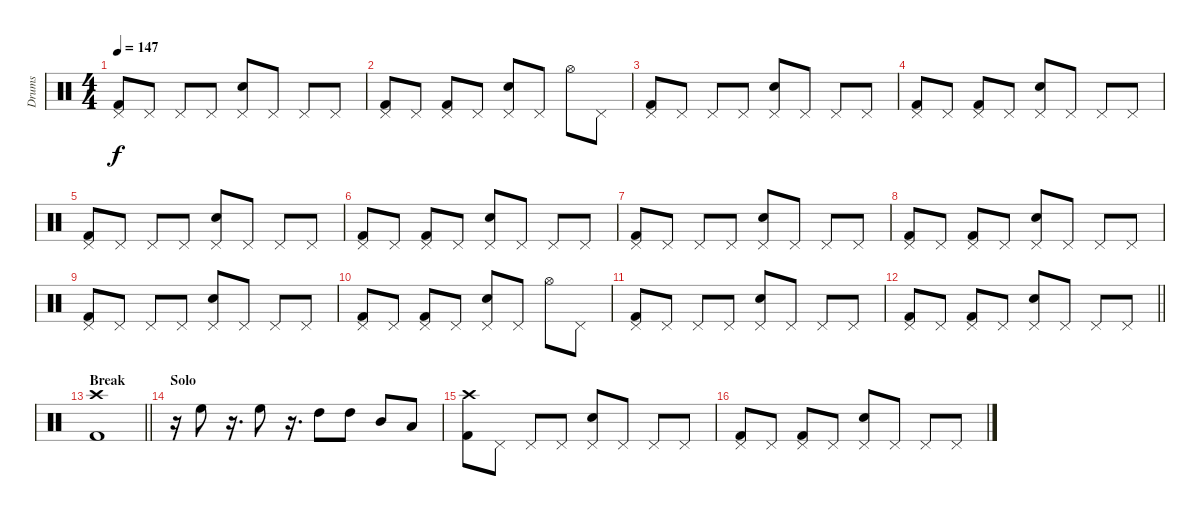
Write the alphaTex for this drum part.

\track ("Drums" "Drums") {instrument percussion}
\staff {score}
\articulation defaults
\ts (4 4)
\tempo 147
\clef neutral
\ks c
("Kick (hit) 2" "Pedal Hi-Hat (hit)").8{dy f} "Pedal Hi-Hat (hit)".8 "Pedal Hi-Hat (hit)".8 "Pedal Hi-Hat (hit)".8 ("Electric Snare (hit)" "Pedal Hi-Hat (hit)").8 "Pedal Hi-Hat (hit)".8 "Pedal Hi-Hat (hit)".8 "Pedal Hi-Hat (hit)".8 |
("Kick (hit) 2" "Pedal Hi-Hat (hit)").8 "Pedal Hi-Hat (hit)".8 ("Kick (hit) 2" "Pedal Hi-Hat (hit)").8 "Pedal Hi-Hat (hit)".8 ("Electric Snare (hit)" "Pedal Hi-Hat (hit)").8 "Pedal Hi-Hat (hit)".8 "Hi-Hat (open)".8 "Pedal Hi-Hat (hit)".8 |
("Kick (hit) 2" "Pedal Hi-Hat (hit)").8 "Pedal Hi-Hat (hit)".8 "Pedal Hi-Hat (hit)".8 "Pedal Hi-Hat (hit)".8 ("Electric Snare (hit)" "Pedal Hi-Hat (hit)").8 "Pedal Hi-Hat (hit)".8 "Pedal Hi-Hat (hit)".8 "Pedal Hi-Hat (hit)".8 |
("Kick (hit) 2" "Pedal Hi-Hat (hit)").8 "Pedal Hi-Hat (hit)".8 ("Kick (hit) 2" "Pedal Hi-Hat (hit)").8 "Pedal Hi-Hat (hit)".8 ("Electric Snare (hit)" "Pedal Hi-Hat (hit)").8 "Pedal Hi-Hat (hit)".8 "Pedal Hi-Hat (hit)".8 "Pedal Hi-Hat (hit)".8 |
("Kick (hit) 2" "Pedal Hi-Hat (hit)").8 "Pedal Hi-Hat (hit)".8 "Pedal Hi-Hat (hit)".8 "Pedal Hi-Hat (hit)".8 ("Electric Snare (hit)" "Pedal Hi-Hat (hit)").8 "Pedal Hi-Hat (hit)".8 "Pedal Hi-Hat (hit)".8 "Pedal Hi-Hat (hit)".8 |
("Kick (hit) 2" "Pedal Hi-Hat (hit)").8 "Pedal Hi-Hat (hit)".8 ("Kick (hit) 2" "Pedal Hi-Hat (hit)").8 "Pedal Hi-Hat (hit)".8 ("Electric Snare (hit)" "Pedal Hi-Hat (hit)").8 "Pedal Hi-Hat (hit)".8 "Pedal Hi-Hat (hit)".8 "Pedal Hi-Hat (hit)".8 |
("Kick (hit) 2" "Pedal Hi-Hat (hit)").8 "Pedal Hi-Hat (hit)".8 "Pedal Hi-Hat (hit)".8 "Pedal Hi-Hat (hit)".8 ("Electric Snare (hit)" "Pedal Hi-Hat (hit)").8 "Pedal Hi-Hat (hit)".8 "Pedal Hi-Hat (hit)".8 "Pedal Hi-Hat (hit)".8 |
("Kick (hit) 2" "Pedal Hi-Hat (hit)").8 "Pedal Hi-Hat (hit)".8 ("Kick (hit) 2" "Pedal Hi-Hat (hit)").8 "Pedal Hi-Hat (hit)".8 ("Electric Snare (hit)" "Pedal Hi-Hat (hit)").8 "Pedal Hi-Hat (hit)".8 "Pedal Hi-Hat (hit)".8 "Pedal Hi-Hat (hit)".8 |
("Kick (hit) 2" "Pedal Hi-Hat (hit)").8 "Pedal Hi-Hat (hit)".8 "Pedal Hi-Hat (hit)".8 "Pedal Hi-Hat (hit)".8 ("Electric Snare (hit)" "Pedal Hi-Hat (hit)").8 "Pedal Hi-Hat (hit)".8 "Pedal Hi-Hat (hit)".8 "Pedal Hi-Hat (hit)".8 |
("Kick (hit) 2" "Pedal Hi-Hat (hit)").8 "Pedal Hi-Hat (hit)".8 ("Kick (hit) 2" "Pedal Hi-Hat (hit)").8 "Pedal Hi-Hat (hit)".8 ("Electric Snare (hit)" "Pedal Hi-Hat (hit)").8 "Pedal Hi-Hat (hit)".8 "Hi-Hat (open)".8 "Pedal Hi-Hat (hit)".8 |
("Kick (hit) 2" "Pedal Hi-Hat (hit)").8 "Pedal Hi-Hat (hit)".8 "Pedal Hi-Hat (hit)".8 "Pedal Hi-Hat (hit)".8 ("Electric Snare (hit)" "Pedal Hi-Hat (hit)").8 "Pedal Hi-Hat (hit)".8 "Pedal Hi-Hat (hit)".8 "Pedal Hi-Hat (hit)".8 |
\barLineRight lightlight
("Kick (hit) 2" "Pedal Hi-Hat (hit)").8 "Pedal Hi-Hat (hit)".8 ("Kick (hit) 2" "Pedal Hi-Hat (hit)").8 "Pedal Hi-Hat (hit)".8 ("Electric Snare (hit)" "Pedal Hi-Hat (hit)").8 "Pedal Hi-Hat (hit)".8 "Pedal Hi-Hat (hit)".8 "Pedal Hi-Hat (hit)".8 |
\section ("" "Break")
\barLineRight lightlight
("Kick (hit) 2" "Crash high (hit)").1 |
\section ("" "Solo")
r.16 "High Floor Tom (hit)".8 r.16{d} "High Floor Tom (hit)".8 r.16{d} "High Tom (hit)".8 "High Tom (hit)".8 "Mid Tom (hit)".8 "Low Tom (hit)".8 |
("Kick (hit) 2" "Crash high (hit)").8 "Pedal Hi-Hat (hit)".8 "Pedal Hi-Hat (hit)".8 "Pedal Hi-Hat (hit)".8 ("Electric Snare (hit)" "Pedal Hi-Hat (hit)").8 "Pedal Hi-Hat (hit)".8 "Pedal Hi-Hat (hit)".8 "Pedal Hi-Hat (hit)".8 |
("Kick (hit) 2" "Pedal Hi-Hat (hit)").8 "Pedal Hi-Hat (hit)".8 ("Kick (hit) 2" "Pedal Hi-Hat (hit)").8 "Pedal Hi-Hat (hit)".8 ("Electric Snare (hit)" "Pedal Hi-Hat (hit)").8 "Pedal Hi-Hat (hit)".8 "Pedal Hi-Hat (hit)".8 "Pedal Hi-Hat (hit)".8
